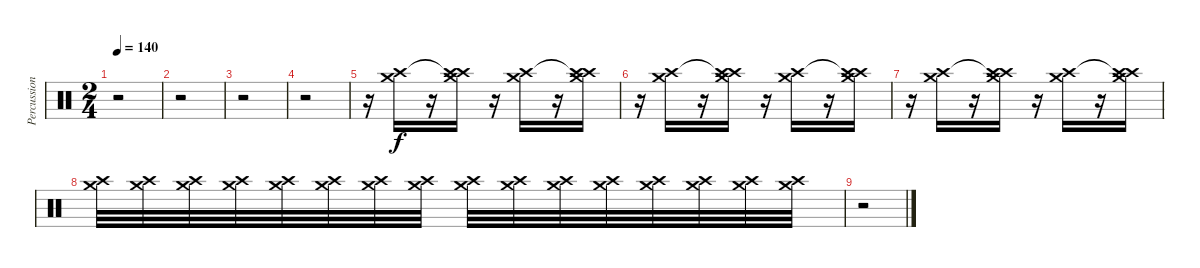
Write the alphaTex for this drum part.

\track ("Percussion 2" "Percussion") {instrument percussion}
\staff {score}
\articulation defaults
\ts (2 4)
\tempo 140
\clef neutral
\ks c
r.2{dy f} |
r.2 |
r.2 |
r.2 |
r.16 ("Crash high (hit)" "Crash medium (hit)").16 r.16 ("Crash high (hit)"{t} "Crash high (hit)" "Crash medium (hit)").16 r.16 ("Crash high (hit)" "Crash medium (hit)").16 r.16 ("Crash high (hit)"{t} "Crash high (hit)" "Crash medium (hit)").16 |
r.16 ("Crash high (hit)" "Crash medium (hit)").16 r.16 ("Crash high (hit)"{t} "Crash high (hit)" "Crash medium (hit)").16 r.16 ("Crash high (hit)" "Crash medium (hit)").16 r.16 ("Crash high (hit)"{t} "Crash high (hit)" "Crash medium (hit)").16 |
r.16 ("Crash high (hit)" "Crash medium (hit)").16 r.16 ("Crash high (hit)"{t} "Crash high (hit)" "Crash medium (hit)").16 r.16 ("Crash high (hit)" "Crash medium (hit)").16 r.16 ("Crash high (hit)"{t} "Crash high (hit)" "Crash medium (hit)").16 |
("Crash high (hit)" "Crash medium (hit)").32 ("Crash high (hit)" "Crash medium (hit)").32 ("Crash high (hit)" "Crash medium (hit)").32 ("Crash high (hit)" "Crash medium (hit)").32 ("Crash high (hit)" "Crash medium (hit)").32 ("Crash high (hit)" "Crash medium (hit)").32 ("Crash high (hit)" "Crash medium (hit)").32 ("Crash high (hit)" "Crash medium (hit)").32 ("Crash high (hit)" "Crash medium (hit)").32 ("Crash high (hit)" "Crash medium (hit)").32 ("Crash high (hit)" "Crash medium (hit)").32 ("Crash high (hit)" "Crash medium (hit)").32 ("Crash high (hit)" "Crash medium (hit)").32 ("Crash high (hit)" "Crash medium (hit)").32 ("Crash high (hit)" "Crash medium (hit)").32 ("Crash high (hit)" "Crash medium (hit)").32 |
r.2
